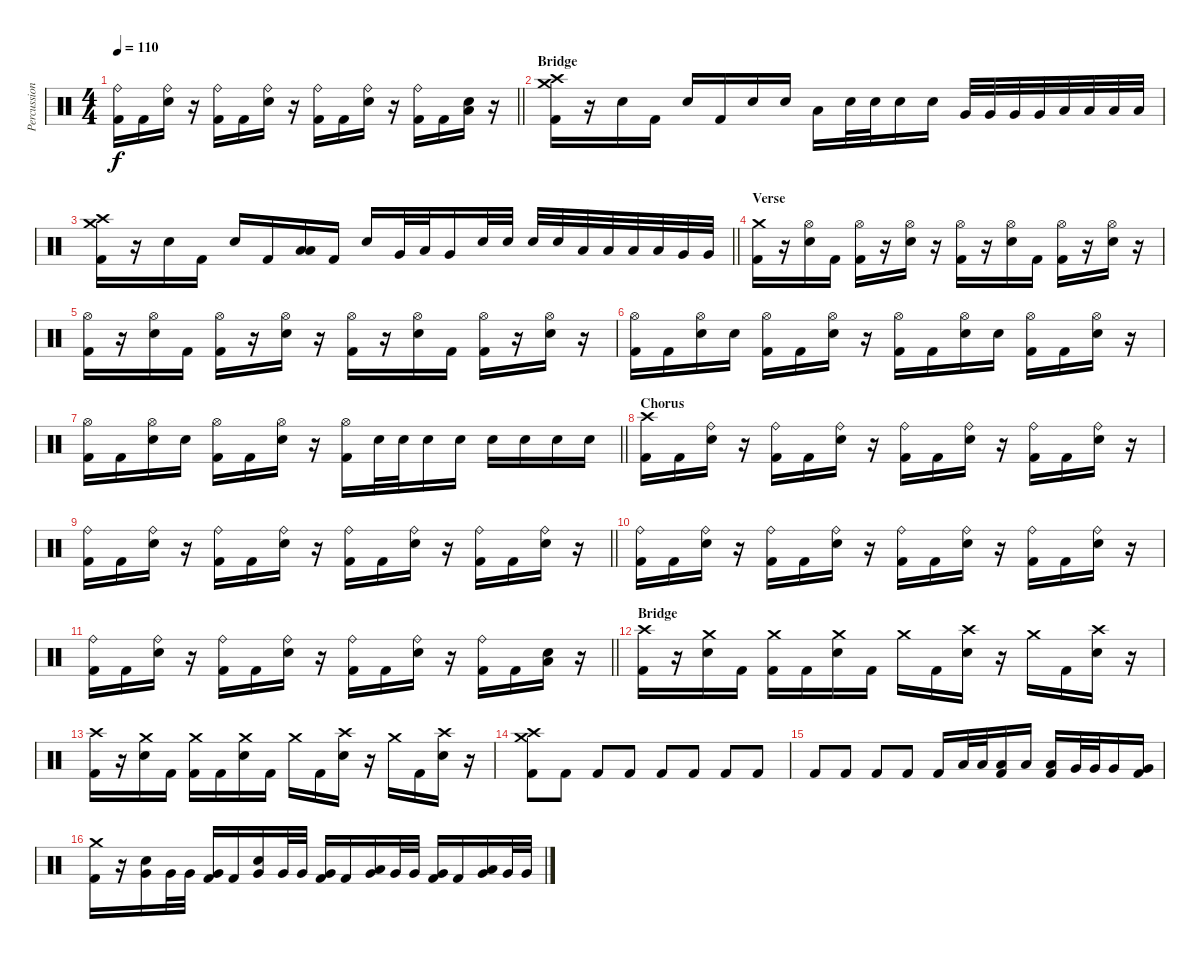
\track ("Percussion" "Percussion") {instrument percussion}
\staff {score}
\articulation defaults
\ts (4 4)
\tempo 110
\clef neutral
\barLineRight lightlight
\ks c
("Ride (bell)" "Kick (hit) 2").16{dy f} "Kick (hit) 2".16 ("Ride (bell)" "Electric Snare (hit)").16 r.16 ("Ride (bell)" "Kick (hit) 2").16 "Kick (hit) 2".16 ("Ride (bell)" "Electric Snare (hit)").16 r.16 ("Ride (bell)" "Kick (hit) 2").16 "Kick (hit) 2".16 ("Ride (bell)" "Electric Snare (hit)").16 r.16 ("Ride (bell)" "Kick (hit) 2").16 "Kick (hit) 2".16 ("Electric Snare (hit)" "Low Floor Tom (hit)").16 r.16 |
\section ("" "Bridge")
("Crash medium (hit)" "Crash high (hit)" "Kick (hit) 2").16 r.16 "Electric Snare (hit)".16 "Kick (hit) 2".16 "Electric Snare (hit)".16 "Kick (hit) 2".16 "Electric Snare (hit)".16 "Electric Snare (hit)".16 "Low Tom (hit)".16 "Electric Snare (hit)".32 "Electric Snare (hit)".32 "Electric Snare (hit)".16 "Electric Snare (hit)".16 "Very Low Tom (hit)".32 "Very Low Tom (hit)".32 "Very Low Tom (hit)".32 "Very Low Tom (hit)".32 "Low Floor Tom (hit)".32 "Low Floor Tom (hit)".32 "Low Floor Tom (hit)".32 "Low Floor Tom (hit)".32 |
\barLineRight lightlight
("Crash medium (hit)" "Crash high (hit)" "Kick (hit) 2").16 r.16 "Electric Snare (hit)".16 "Kick (hit) 2".16 "Electric Snare (hit)".16 "Kick (hit) 2".16 ("Low Tom (hit)" "Low Floor Tom (hit)").16 "Kick (hit) 2".16 "Electric Snare (hit)".16 "Very Low Tom (hit)".32 "Low Tom (hit)".32 "Very Low Tom (hit)".16 "Electric Snare (hit)".32 "Electric Snare (hit)".32 "Electric Snare (hit)".32 "Electric Snare (hit)".32 "Low Tom (hit)".32 "Low Tom (hit)".32 "Low Tom (hit)".32 "Low Tom (hit)".32 "Very Low Tom (hit)".32 "Very Low Tom (hit)".32 |
\section ("" "Verse")
("Crash medium (hit)" "Kick (hit) 2").16 r.16 ("Hi-Hat (open)" "Electric Snare (hit)").16 "Kick (hit) 2".16 ("Hi-Hat (open)" "Kick (hit) 2").16 r.16 ("Hi-Hat (open)" "Electric Snare (hit)").16 r.16 ("Hi-Hat (open)" "Kick (hit) 2").16 r.16 ("Hi-Hat (open)" "Electric Snare (hit)").16 "Kick (hit) 2".16 ("Hi-Hat (open)" "Kick (hit) 2").16 r.16 ("Hi-Hat (open)" "Electric Snare (hit)").16 r.16 |
("Hi-Hat (open)" "Kick (hit) 2").16 r.16 ("Hi-Hat (open)" "Electric Snare (hit)").16 "Kick (hit) 2".16 ("Hi-Hat (open)" "Kick (hit) 2").16 r.16 ("Hi-Hat (open)" "Electric Snare (hit)").16 r.16 ("Hi-Hat (open)" "Kick (hit) 2").16 r.16 ("Hi-Hat (open)" "Electric Snare (hit)").16 "Kick (hit) 2".16 ("Hi-Hat (open)" "Kick (hit) 2").16 r.16 ("Hi-Hat (open)" "Electric Snare (hit)").16 r.16 |
("Hi-Hat (open)" "Kick (hit) 2").16 "Kick (hit) 2".16 ("Hi-Hat (open)" "Electric Snare (hit)").16 "Electric Snare (hit)".16 ("Hi-Hat (open)" "Kick (hit) 2").16 "Kick (hit) 2".16 ("Hi-Hat (open)" "Electric Snare (hit)").16 r.16 ("Hi-Hat (open)" "Kick (hit) 2").16 "Kick (hit) 2".16 ("Hi-Hat (open)" "Electric Snare (hit)").16 "Electric Snare (hit)".16 ("Hi-Hat (open)" "Kick (hit) 2").16 "Kick (hit) 2".16 ("Hi-Hat (open)" "Electric Snare (hit)").16 r.16 |
\barLineRight lightlight
("Hi-Hat (open)" "Kick (hit) 2").16 "Kick (hit) 2".16 ("Hi-Hat (open)" "Electric Snare (hit)").16 "Electric Snare (hit)".16 ("Hi-Hat (open)" "Kick (hit) 2").16 "Kick (hit) 2".16 ("Hi-Hat (open)" "Electric Snare (hit)").16 r.16 ("Hi-Hat (open)" "Kick (hit) 2").16 "Electric Snare (hit)".32 "Electric Snare (hit)".32 "Electric Snare (hit)".16 "Electric Snare (hit)".16 "Electric Snare (hit)".16 "Electric Snare (hit)".16 "Electric Snare (hit)".16 "Electric Snare (hit)".16 |
\section ("" "Chorus")
("Crash high (hit)" "Kick (hit) 2").16 "Kick (hit) 2".16 ("Ride (bell)" "Electric Snare (hit)").16 r.16 ("Ride (bell)" "Kick (hit) 2").16 "Kick (hit) 2".16 ("Ride (bell)" "Electric Snare (hit)").16 r.16 ("Ride (bell)" "Kick (hit) 2").16 "Kick (hit) 2".16 ("Ride (bell)" "Electric Snare (hit)").16 r.16 ("Ride (bell)" "Kick (hit) 2").16 "Kick (hit) 2".16 ("Ride (bell)" "Electric Snare (hit)").16 r.16 |
\barLineRight lightlight
("Ride (bell)" "Kick (hit) 2").16 "Kick (hit) 2".16 ("Ride (bell)" "Electric Snare (hit)").16 r.16 ("Ride (bell)" "Kick (hit) 2").16 "Kick (hit) 2".16 ("Ride (bell)" "Electric Snare (hit)").16 r.16 ("Ride (bell)" "Kick (hit) 2").16 "Kick (hit) 2".16 ("Ride (bell)" "Electric Snare (hit)").16 r.16 ("Ride (bell)" "Kick (hit) 2").16 "Kick (hit) 2".16 ("Ride (bell)" "Electric Snare (hit)").16 r.16 |
("Ride (bell)" "Kick (hit) 2").16 "Kick (hit) 2".16 ("Ride (bell)" "Electric Snare (hit)").16 r.16 ("Ride (bell)" "Kick (hit) 2").16 "Kick (hit) 2".16 ("Ride (bell)" "Electric Snare (hit)").16 r.16 ("Ride (bell)" "Kick (hit) 2").16 "Kick (hit) 2".16 ("Ride (bell)" "Electric Snare (hit)").16 r.16 ("Ride (bell)" "Kick (hit) 2").16 "Kick (hit) 2".16 ("Ride (bell)" "Electric Snare (hit)").16 r.16 |
\barLineRight lightlight
("Ride (bell)" "Kick (hit) 2").16 "Kick (hit) 2".16 ("Ride (bell)" "Electric Snare (hit)").16 r.16 ("Ride (bell)" "Kick (hit) 2").16 "Kick (hit) 2".16 ("Ride (bell)" "Electric Snare (hit)").16 r.16 ("Ride (bell)" "Kick (hit) 2").16 "Kick (hit) 2".16 ("Ride (bell)" "Electric Snare (hit)").16 r.16 ("Ride (bell)" "Kick (hit) 2").16 "Kick (hit) 2".16 ("Electric Snare (hit)" "Low Floor Tom (hit)").16 r.16 |
\section ("" "Bridge")
("Crash high (hit)" "Kick (hit) 2").16 r.16 ("Crash medium (hit)" "Electric Snare (hit)").16 "Kick (hit) 2".16 ("Crash medium (hit)" "Kick (hit) 2").16 "Kick (hit) 2".16 ("Crash medium (hit)" "Electric Snare (hit)").16 "Kick (hit) 2".16 "Crash medium (hit)".16 "Kick (hit) 2".16 ("Crash high (hit)" "Electric Snare (hit)").16 r.16 "Crash medium (hit)".16 "Kick (hit) 2".16 ("Crash high (hit)" "Electric Snare (hit)").16 r.16 |
("Crash high (hit)" "Kick (hit) 2").16 r.16 ("Crash medium (hit)" "Electric Snare (hit)").16 "Kick (hit) 2".16 ("Crash medium (hit)" "Kick (hit) 2").16 "Kick (hit) 2".16 ("Crash medium (hit)" "Electric Snare (hit)").16 "Kick (hit) 2".16 "Crash medium (hit)".16 "Kick (hit) 2".16 ("Crash high (hit)" "Electric Snare (hit)").16 r.16 "Crash medium (hit)".16 "Kick (hit) 2".16 ("Crash high (hit)" "Electric Snare (hit)").16 r.16 |
("Crash medium (hit)" "Crash high (hit)" "Kick (hit) 2").8 "Kick (hit) 2".8 "Kick (hit) 2".8 "Kick (hit) 2".8 "Kick (hit) 2".8 "Kick (hit) 2".8 "Kick (hit) 2".8 "Kick (hit) 2".8 |
"Kick (hit) 2".8 "Kick (hit) 2".8 "Kick (hit) 2".8 "Kick (hit) 2".8 "Kick (hit) 2".16 "Low Tom (hit)".32 "Low Tom (hit)".32 ("Low Tom (hit)" "Kick (hit) 2").16 "Low Tom (hit)".16 ("Low Tom (hit)" "Kick (hit) 2").16 "Very Low Tom (hit)".32 "Very Low Tom (hit)".32 "Very Low Tom (hit)".16 ("Very Low Tom (hit)" "Kick (hit) 2").16 |
("Crash medium (hit)" "Kick (hit) 2").16 r.16 ("Very Low Tom (hit)" "Electric Snare (hit)").16 "Very Low Tom (hit)".32 "Very Low Tom (hit)".32 ("Very Low Tom (hit)" "Kick (hit) 2").16 "Kick (hit) 2".16 ("Very Low Tom (hit)" "Electric Snare (hit)").16 "Very Low Tom (hit)".32 "Very Low Tom (hit)".32 ("Very Low Tom (hit)" "Kick (hit) 2").16 "Kick (hit) 2".16 ("Very Low Tom (hit)" "Low Tom (hit)").16 "Very Low Tom (hit)".32 "Very Low Tom (hit)".32 ("Very Low Tom (hit)" "Kick (hit) 2").16 "Kick (hit) 2".16 ("Very Low Tom (hit)" "Low Tom (hit)").16 "Very Low Tom (hit)".32 "Very Low Tom (hit)".32
